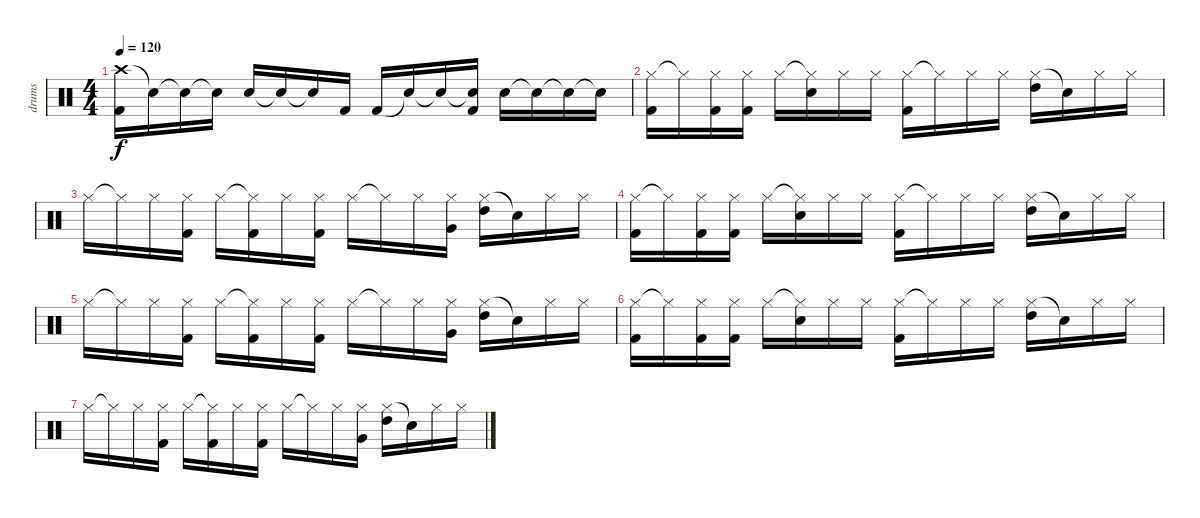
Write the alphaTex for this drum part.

\track ("drums" "drums") {instrument percussion}
\staff {score}
\articulation defaults
\ts (4 4)
\tempo 120
\clef neutral
\ks c
("Crash high (hit)" "Kick (hit) 2").16{dy f} "Snare (hit)"{t}.16 "Snare (hit)"{t}.16 "Snare (hit)"{t}.16 "Snare (hit) 2".16 "Snare (hit)"{t}.16 "Snare (hit)"{t}.16 "Kick (hit) 2".16 "Kick (hit) 2".16 "Snare (hit)"{t}.16 "Snare (hit)"{t}.16 ("Snare (hit)"{t} "Kick (hit) 2").16 "Snare (hit) 2".16 "Snare (hit)"{t}.16 "Snare (hit)"{t}.16 "Snare (hit)"{t}.16 |
("Hi-Hat (closed)" "Kick (hit) 2").16 "Hi-Hat (closed)"{t}.16 ("Hi-Hat (closed)" "Kick (hit) 2").16 ("Hi-Hat (closed)" "Kick (hit) 2").16 "Hi-Hat (closed)".16 ("Hi-Hat (closed)"{t} "Snare (hit) 2").16 "Hi-Hat (closed)".16 "Hi-Hat (closed)".16 ("Hi-Hat (closed)" "Kick (hit) 2").16 "Hi-Hat (closed)"{t}.16 "Hi-Hat (closed)".16 "Hi-Hat (closed)".16 ("Hi-Hat (closed)" "High Tom (hit)").16 "Snare (hit)"{t}.16 "Hi-Hat (closed)".16 "Hi-Hat (closed)".16 |
"Hi-Hat (closed)".16 "Hi-Hat (closed)"{t}.16 "Hi-Hat (closed)".16 ("Hi-Hat (closed)" "Kick (hit) 2").16 "Hi-Hat (closed)".16 ("Hi-Hat (closed)"{t} "Kick (hit) 2").16 "Hi-Hat (closed)".16 ("Hi-Hat (closed)" "Kick (hit) 2").16 "Hi-Hat (closed)".16 "Hi-Hat (closed)"{t}.16 "Hi-Hat (closed)".16 ("Hi-Hat (closed)" "Very Low Tom (hit)").16 ("Hi-Hat (closed)" "High Tom (hit)").16 "Snare (hit)"{t}.16 "Hi-Hat (closed)".16 "Hi-Hat (closed)".16 |
("Hi-Hat (closed)" "Kick (hit) 2").16 "Hi-Hat (closed)"{t}.16 ("Hi-Hat (closed)" "Kick (hit) 2").16 ("Hi-Hat (closed)" "Kick (hit) 2").16 "Hi-Hat (closed)".16 ("Hi-Hat (closed)"{t} "Snare (hit) 2").16 "Hi-Hat (closed)".16 "Hi-Hat (closed)".16 ("Hi-Hat (closed)" "Kick (hit) 2").16 "Hi-Hat (closed)"{t}.16 "Hi-Hat (closed)".16 "Hi-Hat (closed)".16 ("Hi-Hat (closed)" "High Tom (hit)").16 "Snare (hit)"{t}.16 "Hi-Hat (closed)".16 "Hi-Hat (closed)".16 |
"Hi-Hat (closed)".16 "Hi-Hat (closed)"{t}.16 "Hi-Hat (closed)".16 ("Hi-Hat (closed)" "Kick (hit) 2").16 "Hi-Hat (closed)".16 ("Hi-Hat (closed)"{t} "Kick (hit) 2").16 "Hi-Hat (closed)".16 ("Hi-Hat (closed)" "Kick (hit) 2").16 "Hi-Hat (closed)".16 "Hi-Hat (closed)"{t}.16 "Hi-Hat (closed)".16 ("Hi-Hat (closed)" "Very Low Tom (hit)").16 ("Hi-Hat (closed)" "High Tom (hit)").16 "Snare (hit)"{t}.16 "Hi-Hat (closed)".16 "Hi-Hat (closed)".16 |
("Hi-Hat (closed)" "Kick (hit) 2").16 "Hi-Hat (closed)"{t}.16 ("Hi-Hat (closed)" "Kick (hit) 2").16 ("Hi-Hat (closed)" "Kick (hit) 2").16 "Hi-Hat (closed)".16 ("Hi-Hat (closed)"{t} "Snare (hit) 2").16 "Hi-Hat (closed)".16 "Hi-Hat (closed)".16 ("Hi-Hat (closed)" "Kick (hit) 2").16 "Hi-Hat (closed)"{t}.16 "Hi-Hat (closed)".16 "Hi-Hat (closed)".16 ("Hi-Hat (closed)" "High Tom (hit)").16 "Snare (hit)"{t}.16 "Hi-Hat (closed)".16 "Hi-Hat (closed)".16 |
"Hi-Hat (closed)".16 "Hi-Hat (closed)"{t}.16 "Hi-Hat (closed)".16 ("Hi-Hat (closed)" "Kick (hit) 2").16 "Hi-Hat (closed)".16 ("Hi-Hat (closed)"{t} "Kick (hit) 2").16 "Hi-Hat (closed)".16 ("Hi-Hat (closed)" "Kick (hit) 2").16 "Hi-Hat (closed)".16 "Hi-Hat (closed)"{t}.16 "Hi-Hat (closed)".16 ("Hi-Hat (closed)" "Very Low Tom (hit)").16 ("Hi-Hat (closed)" "High Tom (hit)").16 "Snare (hit)"{t}.16 "Hi-Hat (closed)".16 "Hi-Hat (closed)".16
